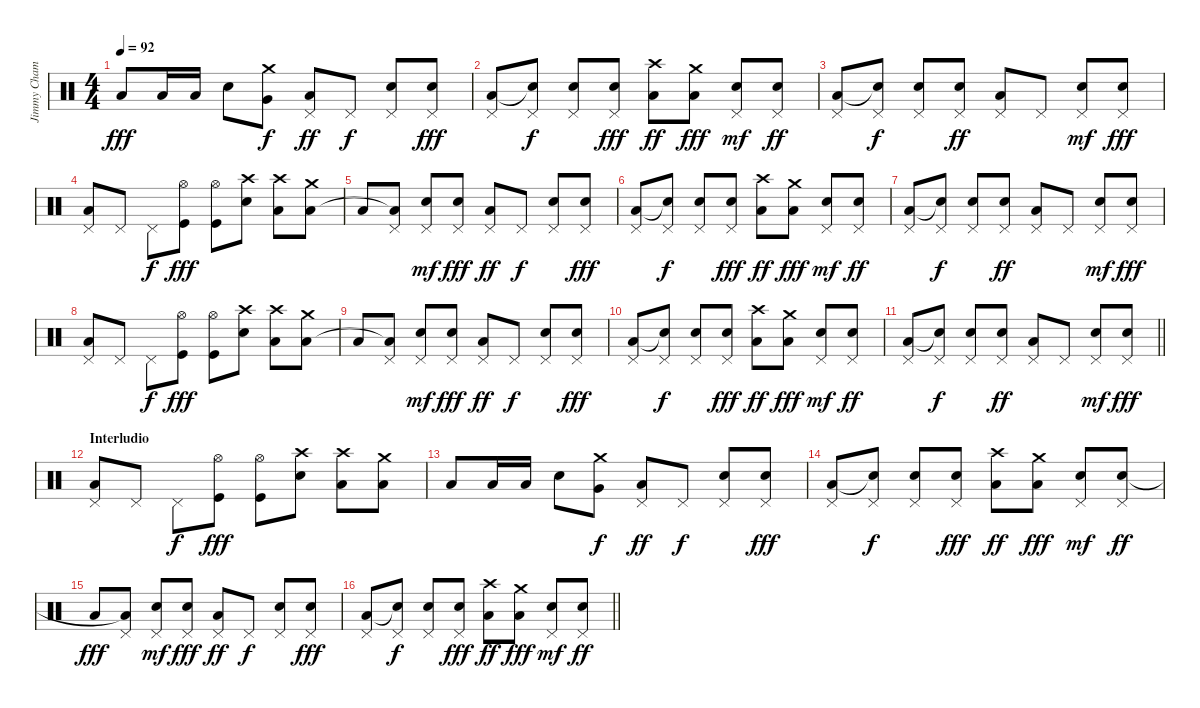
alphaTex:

\track ("Jimmy Chamberlin" "Jimmy Cham") {instrument percussion}
\staff {score}
\articulation defaults
\ts (4 4)
\tempo 92
\clef neutral
\ks c "Low Floor Tom (hit)".8{dy fff} "Low Tom (hit)".16 "Low Tom (hit)".16 "Snare (hit) 2".8
("Crash medium (hit)" "Very Low Tom (hit)").8{dy f} ("Pedal Hi-Hat (hit)" "Low Tom (hit)").8{dy ff} "Pedal Hi-Hat (hit)".8{dy f} ("Pedal Hi-Hat (hit)" "Snare (hit) 2").8 ("Pedal Hi-Hat (hit)" "Snare (hit) 2").8{dy fff} |
("Pedal Hi-Hat (hit)" "Low Tom (hit)").8 ("Pedal Hi-Hat (hit)" "Snare (hit)"{t}).8{dy f} ("Pedal Hi-Hat (hit)" "Snare (hit) 2").8 ("Pedal Hi-Hat (hit)" "Snare (hit) 2").8{dy fff} ("Crash high (hit)" "Low Tom (hit)").8{dy ff} ("Crash medium (hit)" "Low Floor Tom (hit)").8{dy fff} ("Pedal Hi-Hat (hit)" "Snare (hit) 2").8{dy mf} ("Pedal Hi-Hat (hit)" "Snare (hit) 2").8{dy ff} |
("Pedal Hi-Hat (hit)" "Low Tom (hit)").8 ("Pedal Hi-Hat (hit)" "Snare (hit)"{t}).8{dy f} ("Pedal Hi-Hat (hit)" "Snare (hit) 2").8 ("Pedal Hi-Hat (hit)" "Snare (hit) 2").8{dy ff} ("Pedal Hi-Hat (hit)" "Low Floor Tom (hit)").8 "Pedal Hi-Hat (hit)".8 ("Pedal Hi-Hat (hit)" "Snare (hit) 2").8{dy mf} ("Pedal Hi-Hat (hit)" "Snare (hit) 2").8{dy fff} |
("Pedal Hi-Hat (hit)" "Low Tom (hit)").8 "Pedal Hi-Hat (hit)".8 "Pedal Hi-Hat (hit)".8{dy f} ("Hi-Hat (open)" "Kick (hit)").8{dy fff} ("Hi-Hat (open)" "Kick (hit)").8 ("Crash high (hit)" "Snare (hit) 2").8 ("Crash high (hit)" "Low Tom (hit)").8 ("Crash medium (hit)" "Low Floor Tom (hit)").8 |
"Low Floor Tom (hit)".8 ("Pedal Hi-Hat (hit)" "Low Floor Tom (hit)"{t}).8 ("Pedal Hi-Hat (hit)" "Snare (hit) 2").8{dy mf} ("Pedal Hi-Hat (hit)" "Snare (hit) 2").8{dy fff} ("Pedal Hi-Hat (hit)" "Low Tom (hit)").8{dy ff} "Pedal Hi-Hat (hit)".8{dy f} ("Pedal Hi-Hat (hit)" "Snare (hit) 2").8 ("Pedal Hi-Hat (hit)" "Snare (hit) 2").8{dy fff} |
("Pedal Hi-Hat (hit)" "Low Tom (hit)").8 ("Pedal Hi-Hat (hit)" "Snare (hit)"{t}).8{dy f} ("Pedal Hi-Hat (hit)" "Snare (hit) 2").8 ("Pedal Hi-Hat (hit)" "Snare (hit) 2").8{dy fff} ("Crash high (hit)" "Low Tom (hit)").8{dy ff} ("Crash medium (hit)" "Low Floor Tom (hit)").8{dy fff} ("Pedal Hi-Hat (hit)" "Snare (hit) 2").8{dy mf} ("Pedal Hi-Hat (hit)" "Snare (hit) 2").8{dy ff} |
("Pedal Hi-Hat (hit)" "Low Tom (hit)").8 ("Pedal Hi-Hat (hit)" "Snare (hit)"{t}).8{dy f} ("Pedal Hi-Hat (hit)" "Snare (hit) 2").8 ("Pedal Hi-Hat (hit)" "Snare (hit) 2").8{dy ff} ("Pedal Hi-Hat (hit)" "Low Floor Tom (hit)").8 "Pedal Hi-Hat (hit)".8 ("Pedal Hi-Hat (hit)" "Snare (hit) 2").8{dy mf} ("Pedal Hi-Hat (hit)" "Snare (hit) 2").8{dy fff} |
("Pedal Hi-Hat (hit)" "Low Tom (hit)").8 "Pedal Hi-Hat (hit)".8 "Pedal Hi-Hat (hit)".8{dy f} ("Hi-Hat (open)" "Kick (hit)").8{dy fff} ("Hi-Hat (open)" "Kick (hit)").8 ("Crash high (hit)" "Snare (hit) 2").8 ("Crash high (hit)" "Low Tom (hit)").8 ("Crash medium (hit)" "Low Floor Tom (hit)").8 |
"Low Floor Tom (hit)".8 ("Pedal Hi-Hat (hit)" "Low Floor Tom (hit)"{t}).8 ("Pedal Hi-Hat (hit)" "Snare (hit) 2").8{dy mf} ("Pedal Hi-Hat (hit)" "Snare (hit) 2").8{dy fff} ("Pedal Hi-Hat (hit)" "Low Tom (hit)").8{dy ff} "Pedal Hi-Hat (hit)".8{dy f} ("Pedal Hi-Hat (hit)" "Snare (hit) 2").8 ("Pedal Hi-Hat (hit)" "Snare (hit) 2").8{dy fff} |
("Pedal Hi-Hat (hit)" "Low Tom (hit)").8 ("Pedal Hi-Hat (hit)" "Snare (hit)"{t}).8{dy f} ("Pedal Hi-Hat (hit)" "Snare (hit) 2").8 ("Pedal Hi-Hat (hit)" "Snare (hit) 2").8{dy fff} ("Crash high (hit)" "Low Tom (hit)").8{dy ff} ("Crash medium (hit)" "Low Floor Tom (hit)").8{dy fff} ("Pedal Hi-Hat (hit)" "Snare (hit) 2").8{dy mf} ("Pedal Hi-Hat (hit)" "Snare (hit) 2").8{dy ff} |
\barLineRight lightlight
("Pedal Hi-Hat (hit)" "Low Tom (hit)").8 ("Pedal Hi-Hat (hit)" "Snare (hit)"{t}).8{dy f} ("Pedal Hi-Hat (hit)" "Snare (hit) 2").8 ("Pedal Hi-Hat (hit)" "Snare (hit) 2").8{dy ff} ("Pedal Hi-Hat (hit)" "Low Floor Tom (hit)").8 "Pedal Hi-Hat (hit)".8 ("Pedal Hi-Hat (hit)" "Snare (hit) 2").8{dy mf} ("Pedal Hi-Hat (hit)" "Snare (hit) 2").8{dy fff} |
\section ("" "Interludio")
("Pedal Hi-Hat (hit)" "Low Tom (hit)").8 "Pedal Hi-Hat (hit)".8 "Pedal Hi-Hat (hit)".8{dy f} ("Hi-Hat (open)" "Kick (hit)").8{dy fff} ("Hi-Hat (open)" "Kick (hit)").8 ("Crash high (hit)" "Snare (hit) 2").8 ("Crash high (hit)" "Low Tom (hit)").8 ("Crash medium (hit)" "Low Floor Tom (hit)").8 |
"Low Floor Tom (hit)".8 "Low Tom (hit)".16 "Low Tom (hit)".16 "Snare (hit) 2".8 ("Crash medium (hit)" "Very Low Tom (hit)").8{dy f} ("Pedal Hi-Hat (hit)" "Low Tom (hit)").8{dy ff} "Pedal Hi-Hat (hit)".8{dy f} ("Pedal Hi-Hat (hit)" "Snare (hit) 2").8 ("Pedal Hi-Hat (hit)" "Snare (hit) 2").8{dy fff} |
("Pedal Hi-Hat (hit)" "Low Tom (hit)").8 ("Pedal Hi-Hat (hit)" "Snare (hit)"{t}).8{dy f} ("Pedal Hi-Hat (hit)" "Snare (hit) 2").8 ("Pedal Hi-Hat (hit)" "Snare (hit) 2").8{dy fff} ("Crash high (hit)" "Low Tom (hit)").8{dy ff} ("Crash medium (hit)" "Low Floor Tom (hit)").8{dy fff} ("Pedal Hi-Hat (hit)" "Snare (hit) 2").8{dy mf} ("Pedal Hi-Hat (hit)" "Snare (hit) 2").8{dy ff} |
"Low Floor Tom (hit)".8{dy fff} ("Pedal Hi-Hat (hit)" "Low Floor Tom (hit)"{t}).8 ("Pedal Hi-Hat (hit)" "Snare (hit) 2").8{dy mf} ("Pedal Hi-Hat (hit)" "Snare (hit) 2").8{dy fff} ("Pedal Hi-Hat (hit)" "Low Tom (hit)").8{dy ff} "Pedal Hi-Hat (hit)".8{dy f} ("Pedal Hi-Hat (hit)" "Snare (hit) 2").8 ("Pedal Hi-Hat (hit)" "Snare (hit) 2").8{dy fff} |
\barLineRight lightlight
("Pedal Hi-Hat (hit)" "Low Tom (hit)").8 ("Pedal Hi-Hat (hit)" "Snare (hit)"{t}).8{dy f} ("Pedal Hi-Hat (hit)" "Snare (hit) 2").8 ("Pedal Hi-Hat (hit)" "Snare (hit) 2").8{dy fff} ("Crash high (hit)" "Low Tom (hit)").8{dy ff} ("Crash medium (hit)" "Low Floor Tom (hit)").8{dy fff} ("Pedal Hi-Hat (hit)" "Snare (hit) 2").8{dy mf} ("Pedal Hi-Hat (hit)" "Snare (hit) 2").8{dy ff}
